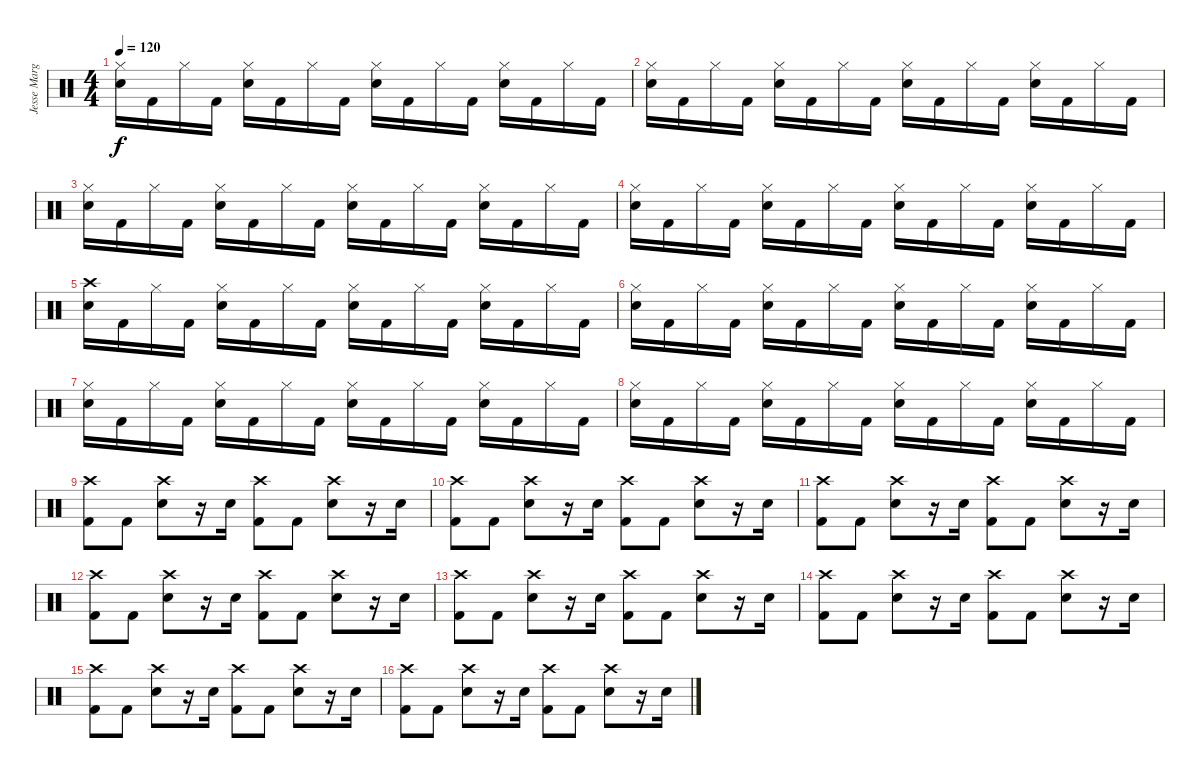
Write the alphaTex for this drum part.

\track ("Jesse Margera" "Jesse Marg") {instrument percussion}
\staff {score}
\articulation defaults
\ts (4 4)
\tempo 120
\clef neutral
\ks c
("Hi-Hat (closed)" "Electric Snare (hit)").16{dy f} "Kick (hit) 2".16 "Hi-Hat (closed)".16 "Kick (hit) 2".16 ("Hi-Hat (closed)" "Electric Snare (hit)").16 "Kick (hit) 2".16 "Hi-Hat (closed)".16 "Kick (hit) 2".16 ("Hi-Hat (closed)" "Electric Snare (hit)").16 "Kick (hit) 2".16 "Hi-Hat (closed)".16 "Kick (hit) 2".16 ("Hi-Hat (closed)" "Electric Snare (hit)").16 "Kick (hit) 2".16 "Hi-Hat (closed)".16 "Kick (hit) 2".16 |
("Hi-Hat (closed)" "Electric Snare (hit)").16 "Kick (hit) 2".16 "Hi-Hat (closed)".16 "Kick (hit) 2".16 ("Hi-Hat (closed)" "Electric Snare (hit)").16 "Kick (hit) 2".16 "Hi-Hat (closed)".16 "Kick (hit) 2".16 ("Hi-Hat (closed)" "Electric Snare (hit)").16 "Kick (hit) 2".16 "Hi-Hat (closed)".16 "Kick (hit) 2".16 ("Hi-Hat (closed)" "Electric Snare (hit)").16 "Kick (hit) 2".16 "Hi-Hat (closed)".16 "Kick (hit) 2".16 |
("Hi-Hat (closed)" "Electric Snare (hit)").16 "Kick (hit) 2".16 "Hi-Hat (closed)".16 "Kick (hit) 2".16 ("Hi-Hat (closed)" "Electric Snare (hit)").16 "Kick (hit) 2".16 "Hi-Hat (closed)".16 "Kick (hit) 2".16 ("Hi-Hat (closed)" "Electric Snare (hit)").16 "Kick (hit) 2".16 "Hi-Hat (closed)".16 "Kick (hit) 2".16 ("Hi-Hat (closed)" "Electric Snare (hit)").16 "Kick (hit) 2".16 "Hi-Hat (closed)".16 "Kick (hit) 2".16 |
("Hi-Hat (closed)" "Electric Snare (hit)").16 "Kick (hit) 2".16 "Hi-Hat (closed)".16 "Kick (hit) 2".16 ("Hi-Hat (closed)" "Electric Snare (hit)").16 "Kick (hit) 2".16 "Hi-Hat (closed)".16 "Kick (hit) 2".16 ("Hi-Hat (closed)" "Electric Snare (hit)").16 "Kick (hit) 2".16 "Hi-Hat (closed)".16 "Kick (hit) 2".16 ("Hi-Hat (closed)" "Electric Snare (hit)").16 "Kick (hit) 2".16 "Hi-Hat (closed)".16 "Kick (hit) 2".16 |
("Crash high (hit)" "Electric Snare (hit)").16 "Kick (hit) 2".16 "Hi-Hat (closed)".16 "Kick (hit) 2".16 ("Hi-Hat (closed)" "Electric Snare (hit)").16 "Kick (hit) 2".16 "Hi-Hat (closed)".16 "Kick (hit) 2".16 ("Hi-Hat (closed)" "Electric Snare (hit)").16 "Kick (hit) 2".16 "Hi-Hat (closed)".16 "Kick (hit) 2".16 ("Hi-Hat (closed)" "Electric Snare (hit)").16 "Kick (hit) 2".16 "Hi-Hat (closed)".16 "Kick (hit) 2".16 |
("Hi-Hat (closed)" "Electric Snare (hit)").16 "Kick (hit) 2".16 "Hi-Hat (closed)".16 "Kick (hit) 2".16 ("Hi-Hat (closed)" "Electric Snare (hit)").16 "Kick (hit) 2".16 "Hi-Hat (closed)".16 "Kick (hit) 2".16 ("Hi-Hat (closed)" "Electric Snare (hit)").16 "Kick (hit) 2".16 "Hi-Hat (closed)".16 "Kick (hit) 2".16 ("Hi-Hat (closed)" "Electric Snare (hit)").16 "Kick (hit) 2".16 "Hi-Hat (closed)".16 "Kick (hit) 2".16 |
("Hi-Hat (closed)" "Electric Snare (hit)").16 "Kick (hit) 2".16 "Hi-Hat (closed)".16 "Kick (hit) 2".16 ("Hi-Hat (closed)" "Electric Snare (hit)").16 "Kick (hit) 2".16 "Hi-Hat (closed)".16 "Kick (hit) 2".16 ("Hi-Hat (closed)" "Electric Snare (hit)").16 "Kick (hit) 2".16 "Hi-Hat (closed)".16 "Kick (hit) 2".16 ("Hi-Hat (closed)" "Electric Snare (hit)").16 "Kick (hit) 2".16 "Hi-Hat (closed)".16 "Kick (hit) 2".16 |
("Hi-Hat (closed)" "Electric Snare (hit)").16 "Kick (hit) 2".16 "Hi-Hat (closed)".16 "Kick (hit) 2".16 ("Hi-Hat (closed)" "Electric Snare (hit)").16 "Kick (hit) 2".16 "Hi-Hat (closed)".16 "Kick (hit) 2".16 ("Hi-Hat (closed)" "Electric Snare (hit)").16 "Kick (hit) 2".16 "Hi-Hat (closed)".16 "Kick (hit) 2".16 ("Hi-Hat (closed)" "Electric Snare (hit)").16 "Kick (hit) 2".16 "Hi-Hat (closed)".16 "Kick (hit) 2".16 |
("Crash high (hit)" "Kick (hit) 2").8 "Kick (hit) 2".8 ("Crash high (hit)" "Electric Snare (hit)").8 r.16 "Electric Snare (hit)".16 ("Crash high (hit)" "Kick (hit) 2").8 "Kick (hit) 2".8 ("Crash high (hit)" "Electric Snare (hit)").8 r.16 "Electric Snare (hit)".16 |
("Crash high (hit)" "Kick (hit) 2").8 "Kick (hit) 2".8 ("Crash high (hit)" "Electric Snare (hit)").8 r.16 "Electric Snare (hit)".16 ("Crash high (hit)" "Kick (hit) 2").8 "Kick (hit) 2".8 ("Crash high (hit)" "Electric Snare (hit)").8 r.16 "Electric Snare (hit)".16 |
("Crash high (hit)" "Kick (hit) 2").8 "Kick (hit) 2".8 ("Crash high (hit)" "Electric Snare (hit)").8 r.16 "Electric Snare (hit)".16 ("Crash high (hit)" "Kick (hit) 2").8 "Kick (hit) 2".8 ("Crash high (hit)" "Electric Snare (hit)").8 r.16 "Electric Snare (hit)".16 |
("Crash high (hit)" "Kick (hit) 2").8 "Kick (hit) 2".8 ("Crash high (hit)" "Electric Snare (hit)").8 r.16 "Electric Snare (hit)".16 ("Crash high (hit)" "Kick (hit) 2").8 "Kick (hit) 2".8 ("Crash high (hit)" "Electric Snare (hit)").8 r.16 "Electric Snare (hit)".16 |
("Crash high (hit)" "Kick (hit) 2").8 "Kick (hit) 2".8 ("Crash high (hit)" "Electric Snare (hit)").8 r.16 "Electric Snare (hit)".16 ("Crash high (hit)" "Kick (hit) 2").8 "Kick (hit) 2".8 ("Crash high (hit)" "Electric Snare (hit)").8 r.16 "Electric Snare (hit)".16 |
("Crash high (hit)" "Kick (hit) 2").8 "Kick (hit) 2".8 ("Crash high (hit)" "Electric Snare (hit)").8 r.16 "Electric Snare (hit)".16 ("Crash high (hit)" "Kick (hit) 2").8 "Kick (hit) 2".8 ("Crash high (hit)" "Electric Snare (hit)").8 r.16 "Electric Snare (hit)".16 |
("Crash high (hit)" "Kick (hit) 2").8 "Kick (hit) 2".8 ("Crash high (hit)" "Electric Snare (hit)").8 r.16 "Electric Snare (hit)".16 ("Crash high (hit)" "Kick (hit) 2").8 "Kick (hit) 2".8 ("Crash high (hit)" "Electric Snare (hit)").8 r.16 "Electric Snare (hit)".16 |
("Crash high (hit)" "Kick (hit) 2").8 "Kick (hit) 2".8 ("Crash high (hit)" "Electric Snare (hit)").8 r.16 "Electric Snare (hit)".16 ("Crash high (hit)" "Kick (hit) 2").8 "Kick (hit) 2".8 ("Crash high (hit)" "Electric Snare (hit)").8 r.16 "Electric Snare (hit)".16
